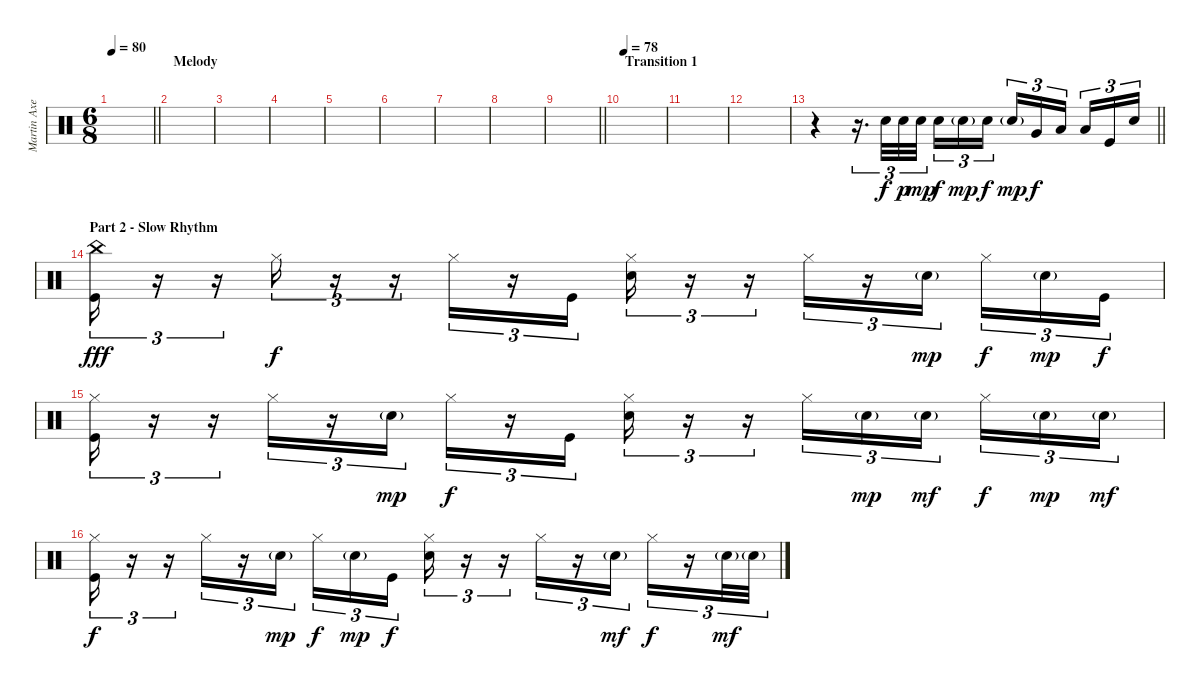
\track ("Martin Axenrot" "Martin Axe") {instrument percussion}
\staff {score}
\articulation defaults
\ts (6 8)
\tempo 80
\clef neutral
\barLineRight lightlight
\ks c
|
\section ("" "Melody")
|
|
|
|
|
|
|
\barLineRight lightlight
|
\section ("" "Transition 1")
\tempo 78
|
|
|
\barLineRight lightlight
r.4 r.16{d tu (3 2)} "Snare (hit) 2".32{tu (3 2)} "Snare (hit) 2".32{tu (3 2) dy p} "Snare (hit) 2".32{tu (3 2) dy mp} "Snare (hit) 2".16{tu (3 2) dy f} "Snare (hit) 2"{g}.16{tu (3 2) dy mp} "Snare (hit) 2".16{tu (3 2) dy f beam splitsecondary} "Snare (hit) 2"{g}.16{tu (3 2) dy mp} "Very Low Tom (hit)".16{tu (3 2) dy f} "Low Tom (hit)".16{tu (3 2) beam splitsecondary} "Low Floor Tom (hit)".16{tu (3 2)} "Kick (hit)".16{tu (3 2)} "Snare (hit) 2".16{tu (3 2)} |
\section ("" "Part 2 - Slow Rhythm")
("China (hit)" "Kick (hit)").16{tu (3 2) dy fff} r.16{tu (3 2)} r.16{tu (3 2)} "Hi-Hat (closed)".16{tu (3 2) dy f} r.16{tu (3 2)} r.16{tu (3 2)} "Hi-Hat (closed)".16{tu (3 2)} r.16{tu (3 2)} "Kick (hit)".16{tu (3 2)} ("Hi-Hat (closed)" "Snare (hit) 2").16{tu (3 2)} r.16{tu (3 2)} r.16{tu (3 2)} "Hi-Hat (closed)".16{tu (3 2)} r.16{tu (3 2)} "Snare (hit) 2"{g}.16{tu (3 2) dy mp beam splitsecondary} "Hi-Hat (closed)".16{tu (3 2) dy f} "Snare (hit) 2"{g}.16{tu (3 2) dy mp} "Kick (hit)".16{tu (3 2) dy f} |
("Hi-Hat (closed)" "Kick (hit)").16{tu (3 2)} r.16{tu (3 2)} r.16{tu (3 2)} "Hi-Hat (closed)".16{tu (3 2)} r.16{tu (3 2)} "Snare (hit) 2"{g}.16{tu (3 2) dy mp} "Hi-Hat (closed)".16{tu (3 2) dy f} r.16{tu (3 2)} "Kick (hit)".16{tu (3 2)} ("Hi-Hat (closed)" "Snare (hit) 2").16{tu (3 2)} r.16{tu (3 2)} r.16{tu (3 2)} "Hi-Hat (closed)".16{tu (3 2)} "Snare (hit) 2"{g}.16{tu (3 2) dy mp} "Snare (hit) 2"{g}.16{tu (3 2) dy mf beam splitsecondary} "Hi-Hat (closed)".16{tu (3 2) dy f} "Snare (hit) 2"{g}.16{tu (3 2) dy mp} "Snare (hit) 2"{g}.16{tu (3 2) dy mf} |
("Hi-Hat (closed)" "Kick (hit)").16{tu (3 2) dy f} r.16{tu (3 2)} r.16{tu (3 2)} "Hi-Hat (closed)".16{tu (3 2)} r.16{tu (3 2)} "Snare (hit) 2"{g}.16{tu (3 2) dy mp beam splitsecondary} "Hi-Hat (closed)".16{tu (3 2) dy f} "Snare (hit) 2"{g}.16{tu (3 2) dy mp} "Kick (hit)".16{tu (3 2) dy f} ("Hi-Hat (closed)" "Snare (hit) 2").16{tu (3 2)} r.16{tu (3 2)} r.16{tu (3 2)} "Hi-Hat (closed)".16{tu (3 2)} r.16{tu (3 2)} "Snare (hit) 2"{g}.16{tu (3 2) dy mf} "Hi-Hat (closed)".16{tu (3 2) dy f} r.16{tu (3 2)} "Snare (hit) 2"{g}.32{tu (3 2) dy mf} "Snare (hit) 2"{g}.32{tu (3 2)}
